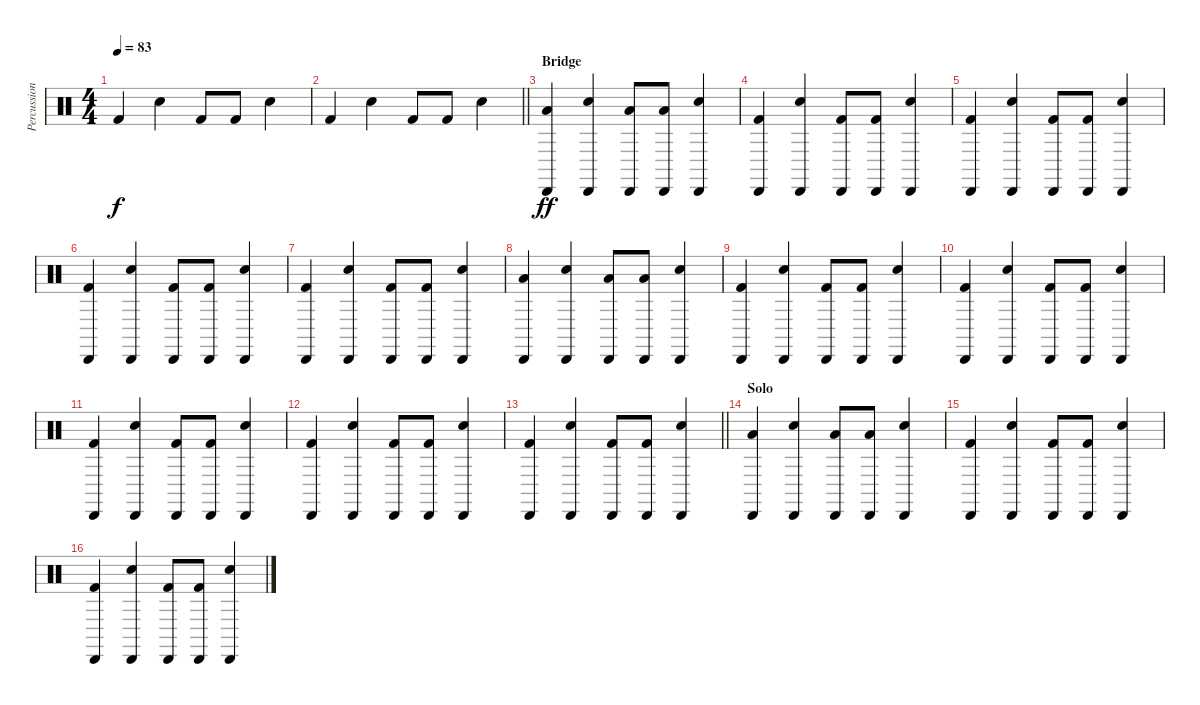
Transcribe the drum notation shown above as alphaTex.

\track ("Percussion" "Percussion") {instrument percussion}
\staff {score}
\articulation defaults
\ts (4 4)
\tempo 83
\clef neutral
\ks c "Kick (hit) 2".4{dy f} "Electric Snare (hit)".4 "Kick (hit) 2".8 "Kick (hit) 2".8 "Electric Snare (hit)".4
|
\barLineRight lightlight "Kick (hit) 2".4 "Electric Snare (hit)".4 "Kick (hit) 2".8 "Kick (hit) 2".8 "Electric Snare (hit)".4
|
\section ("" "Bridge")
("Cabasa (hit)" "Low Floor Tom (hit)").4{dy ff} ("Cabasa (hit)" "Electric Snare (hit)").4 ("Cabasa (hit)" "Low Floor Tom (hit)").8 ("Cabasa (hit)" "Low Floor Tom (hit)").8 ("Cabasa (hit)" "Electric Snare (hit)").4 |
("Cabasa (hit)" "Kick (hit) 2").4 ("Cabasa (hit)" "Electric Snare (hit)").4 ("Cabasa (hit)" "Kick (hit) 2").8 ("Cabasa (hit)" "Kick (hit) 2").8 ("Cabasa (hit)" "Electric Snare (hit)").4 |
("Cabasa (hit)" "Kick (hit) 2").4 ("Cabasa (hit)" "Electric Snare (hit)").4 ("Cabasa (hit)" "Kick (hit) 2").8 ("Cabasa (hit)" "Kick (hit) 2").8 ("Cabasa (hit)" "Electric Snare (hit)").4 |
("Cabasa (hit)" "Kick (hit) 2").4 ("Cabasa (hit)" "Electric Snare (hit)").4 ("Cabasa (hit)" "Kick (hit) 2").8 ("Cabasa (hit)" "Kick (hit) 2").8 ("Cabasa (hit)" "Electric Snare (hit)").4 |
("Cabasa (hit)" "Kick (hit) 2").4 ("Cabasa (hit)" "Electric Snare (hit)").4 ("Cabasa (hit)" "Kick (hit) 2").8 ("Cabasa (hit)" "Kick (hit) 2").8 ("Cabasa (hit)" "Electric Snare (hit)").4 |
("Cabasa (hit)" "Low Floor Tom (hit)").4 ("Cabasa (hit)" "Electric Snare (hit)").4 ("Cabasa (hit)" "Low Floor Tom (hit)").8 ("Cabasa (hit)" "Low Floor Tom (hit)").8 ("Cabasa (hit)" "Electric Snare (hit)").4 |
("Cabasa (hit)" "Kick (hit) 2").4 ("Cabasa (hit)" "Electric Snare (hit)").4 ("Cabasa (hit)" "Kick (hit) 2").8 ("Cabasa (hit)" "Kick (hit) 2").8 ("Cabasa (hit)" "Electric Snare (hit)").4 |
("Cabasa (hit)" "Kick (hit) 2").4 ("Cabasa (hit)" "Electric Snare (hit)").4 ("Cabasa (hit)" "Kick (hit) 2").8 ("Cabasa (hit)" "Kick (hit) 2").8 ("Cabasa (hit)" "Electric Snare (hit)").4 |
("Cabasa (hit)" "Kick (hit) 2").4 ("Cabasa (hit)" "Electric Snare (hit)").4 ("Cabasa (hit)" "Kick (hit) 2").8 ("Cabasa (hit)" "Kick (hit) 2").8 ("Cabasa (hit)" "Electric Snare (hit)").4 |
("Cabasa (hit)" "Kick (hit) 2").4 ("Cabasa (hit)" "Electric Snare (hit)").4 ("Cabasa (hit)" "Kick (hit) 2").8 ("Cabasa (hit)" "Kick (hit) 2").8 ("Cabasa (hit)" "Electric Snare (hit)").4 |
\barLineRight lightlight
("Cabasa (hit)" "Kick (hit) 2").4 ("Cabasa (hit)" "Electric Snare (hit)").4 ("Cabasa (hit)" "Kick (hit) 2").8 ("Cabasa (hit)" "Kick (hit) 2").8 ("Cabasa (hit)" "Electric Snare (hit)").4 |
\section ("" "Solo")
("Cabasa (hit)" "Low Floor Tom (hit)").4 ("Cabasa (hit)" "Electric Snare (hit)").4 ("Cabasa (hit)" "Low Floor Tom (hit)").8 ("Cabasa (hit)" "Low Floor Tom (hit)").8 ("Cabasa (hit)" "Electric Snare (hit)").4 |
("Cabasa (hit)" "Kick (hit) 2").4 ("Cabasa (hit)" "Electric Snare (hit)").4 ("Cabasa (hit)" "Kick (hit) 2").8 ("Cabasa (hit)" "Kick (hit) 2").8 ("Cabasa (hit)" "Electric Snare (hit)").4 |
("Cabasa (hit)" "Kick (hit) 2").4 ("Cabasa (hit)" "Electric Snare (hit)").4 ("Cabasa (hit)" "Kick (hit) 2").8 ("Cabasa (hit)" "Kick (hit) 2").8 ("Cabasa (hit)" "Electric Snare (hit)").4
